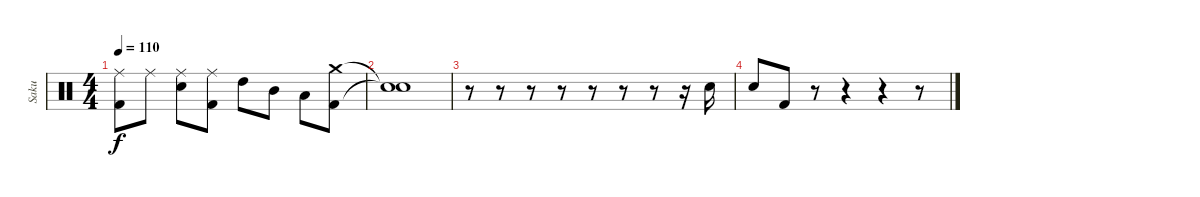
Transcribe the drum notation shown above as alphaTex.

\track ("Saku" "Saku") {instrument percussion}
\staff {score}
\articulation defaults
\ts (4 4)
\tempo 110
\clef neutral
\ks c
("Ride (middle)" "Kick (hit) 2").8{dy f} "Ride (middle)".8 ("Ride (middle)" "Electric Snare (hit)").8 ("Ride (middle)" "Kick (hit) 2").8 "High Tom (hit)".8 "Mid Tom (hit)".8 "Low Tom (hit)".8 ("Crash medium (hit)" "Kick (hit) 2").8 |
("Snare (hit)"{t} "Snare (hit)"{t}).1 |
r.8 r.8 r.8 r.8 r.8 r.8 r.8 r.16 "Electric Snare (hit)".16 |
"Electric Snare (hit)".8 "Kick (hit) 2".8 r.8 r.4 r.4 r.8
